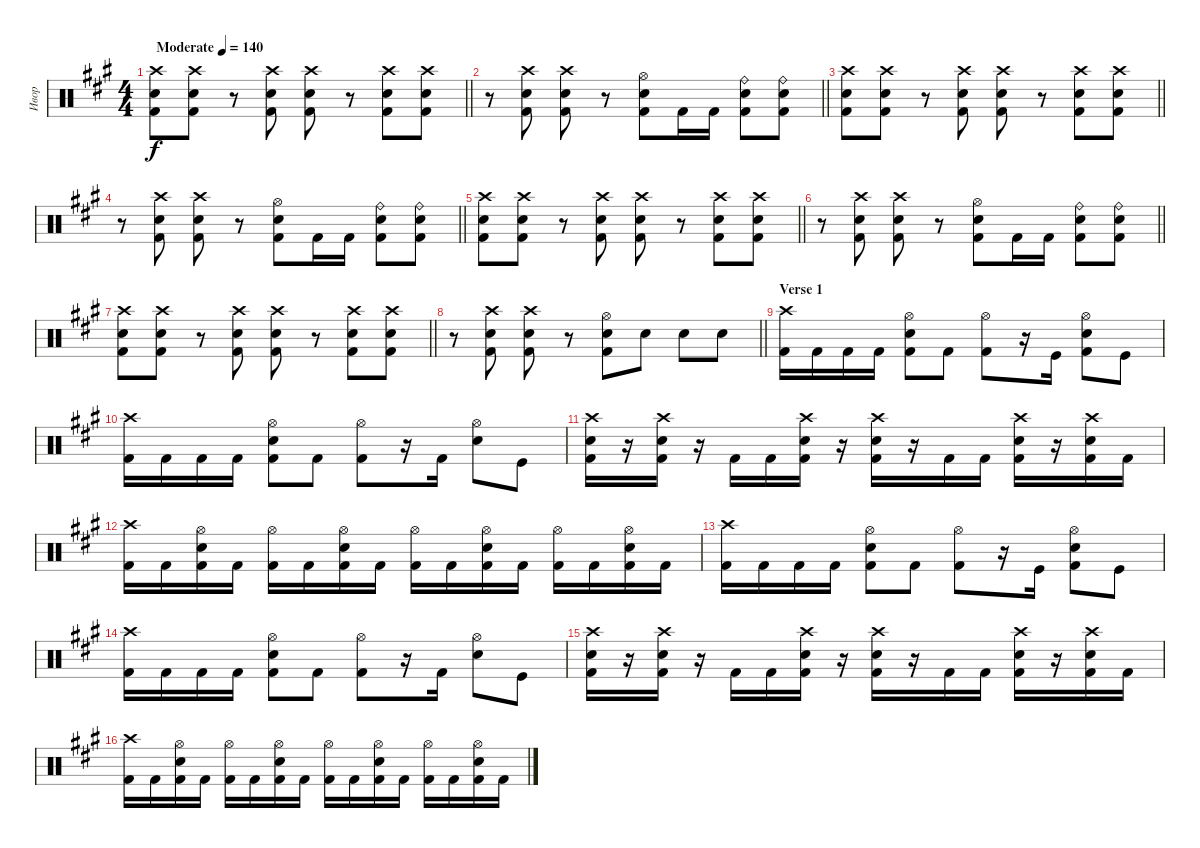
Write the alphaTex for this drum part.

\track ("Ивор" "Ивор") {instrument percussion}
\staff {score}
\articulation defaults
\ts (4 4)
\tempo (140 "Moderate")
\clef neutral
\barLineRight lightlight
\ks f#minor
("Crash high (hit)" "Electric Snare (hit)" "Kick (hit) 2").8{dy f} ("Crash high (hit)" "Electric Snare (hit)" "Kick (hit) 2").8 r.8 ("Crash high (hit)" "Electric Snare (hit)" "Kick (hit) 2").8 ("Crash high (hit)" "Electric Snare (hit)" "Kick (hit) 2").8 r.8 ("Crash high (hit)" "Electric Snare (hit)" "Kick (hit) 2").8 ("Crash high (hit)" "Electric Snare (hit)" "Kick (hit) 2").8 |
\barLineRight lightlight
r.8 ("Crash high (hit)" "Electric Snare (hit)" "Kick (hit) 2").8 ("Crash high (hit)" "Electric Snare (hit)" "Kick (hit) 2").8 r.8 ("Hi-Hat (open)" "Electric Snare (hit)" "Kick (hit) 2").8 "Kick (hit) 2".16 "Kick (hit) 2".16 ("Ride (bell)" "Electric Snare (hit)" "Kick (hit) 2").8 ("Ride (bell)" "Electric Snare (hit)" "Kick (hit) 2").8 |
\barLineRight lightlight
("Crash high (hit)" "Electric Snare (hit)" "Kick (hit) 2").8 ("Crash high (hit)" "Electric Snare (hit)" "Kick (hit) 2").8 r.8 ("Crash high (hit)" "Electric Snare (hit)" "Kick (hit) 2").8 ("Crash high (hit)" "Electric Snare (hit)" "Kick (hit) 2").8 r.8 ("Crash high (hit)" "Electric Snare (hit)" "Kick (hit) 2").8 ("Crash high (hit)" "Electric Snare (hit)" "Kick (hit) 2").8 |
\barLineRight lightlight
r.8 ("Crash high (hit)" "Electric Snare (hit)" "Kick (hit) 2").8 ("Crash high (hit)" "Electric Snare (hit)" "Kick (hit) 2").8 r.8 ("Hi-Hat (open)" "Electric Snare (hit)" "Kick (hit) 2").8 "Kick (hit) 2".16 "Kick (hit) 2".16 ("Ride (bell)" "Electric Snare (hit)" "Kick (hit) 2").8 ("Ride (bell)" "Electric Snare (hit)" "Kick (hit) 2").8 |
\barLineRight lightlight
("Crash high (hit)" "Electric Snare (hit)" "Kick (hit) 2").8 ("Crash high (hit)" "Electric Snare (hit)" "Kick (hit) 2").8 r.8 ("Crash high (hit)" "Electric Snare (hit)" "Kick (hit) 2").8 ("Crash high (hit)" "Electric Snare (hit)" "Kick (hit) 2").8 r.8 ("Crash high (hit)" "Electric Snare (hit)" "Kick (hit) 2").8 ("Crash high (hit)" "Electric Snare (hit)" "Kick (hit) 2").8 |
\barLineRight lightlight
r.8 ("Crash high (hit)" "Electric Snare (hit)" "Kick (hit) 2").8 ("Crash high (hit)" "Electric Snare (hit)" "Kick (hit) 2").8 r.8 ("Hi-Hat (open)" "Electric Snare (hit)" "Kick (hit) 2").8 "Kick (hit) 2".16 "Kick (hit) 2".16 ("Ride (bell)" "Electric Snare (hit)" "Kick (hit) 2").8 ("Ride (bell)" "Electric Snare (hit)" "Kick (hit) 2").8 |
\barLineRight lightlight
("Crash high (hit)" "Electric Snare (hit)" "Kick (hit) 2").8 ("Crash high (hit)" "Electric Snare (hit)" "Kick (hit) 2").8 r.8 ("Crash high (hit)" "Electric Snare (hit)" "Kick (hit) 2").8 ("Crash high (hit)" "Electric Snare (hit)" "Kick (hit) 2").8 r.8 ("Crash high (hit)" "Electric Snare (hit)" "Kick (hit) 2").8 ("Crash high (hit)" "Electric Snare (hit)" "Kick (hit) 2").8 |
\barLineRight lightlight
r.8 ("Crash high (hit)" "Electric Snare (hit)" "Kick (hit) 2").8 ("Crash high (hit)" "Electric Snare (hit)" "Kick (hit) 2").8 r.8 ("Hi-Hat (open)" "Electric Snare (hit)" "Kick (hit) 2").8 "Electric Snare (hit)".8 "Electric Snare (hit)".8 "Electric Snare (hit)".8 |
\section ("" "Verse 1")
("Crash high (hit)" "Kick (hit) 2").16 "Kick (hit) 2".16 "Kick (hit) 2".16 "Kick (hit) 2".16 ("Hi-Hat (open)" "Electric Snare (hit)" "Kick (hit) 2").8 "Kick (hit) 2".8 ("Hi-Hat (open)" "Kick (hit) 2").8 r.16 "Kick (hit)".16 ("Hi-Hat (open)" "Electric Snare (hit)" "Kick (hit) 2").8 "Kick (hit)".8 |
("Crash high (hit)" "Kick (hit) 2").16 "Kick (hit) 2".16 "Kick (hit) 2".16 "Kick (hit) 2".16 ("Hi-Hat (open)" "Electric Snare (hit)" "Kick (hit) 2").8 "Kick (hit) 2".8 ("Hi-Hat (open)" "Kick (hit) 2").8 r.16 "Kick (hit) 2".16 ("Hi-Hat (open)" "Electric Snare (hit)").8 "Kick (hit)".8 |
("Crash high (hit)" "Electric Snare (hit)" "Kick (hit) 2").16 r.16 ("Crash high (hit)" "Electric Snare (hit)" "Kick (hit) 2").16 r.16 "Kick (hit) 2".16 "Kick (hit) 2".16 ("Crash high (hit)" "Electric Snare (hit)" "Kick (hit) 2").16 r.16 ("Crash high (hit)" "Electric Snare (hit)" "Kick (hit) 2").16 r.16 "Kick (hit) 2".16 "Kick (hit) 2".16 ("Crash high (hit)" "Electric Snare (hit)" "Kick (hit) 2").16 r.16 ("Crash high (hit)" "Electric Snare (hit)" "Kick (hit) 2").16 "Kick (hit) 2".16 |
("Crash high (hit)" "Kick (hit) 2").16 "Kick (hit) 2".16 ("Hi-Hat (open)" "Electric Snare (hit)" "Kick (hit) 2").16 "Kick (hit) 2".16 ("Hi-Hat (open)" "Kick (hit) 2").16 "Kick (hit) 2".16 ("Hi-Hat (open)" "Electric Snare (hit)" "Kick (hit) 2").16 "Kick (hit) 2".16 ("Hi-Hat (open)" "Kick (hit) 2").16 "Kick (hit) 2".16 ("Hi-Hat (open)" "Electric Snare (hit)" "Kick (hit) 2").16 "Kick (hit) 2".16 ("Hi-Hat (open)" "Kick (hit) 2").16 "Kick (hit) 2".16 ("Hi-Hat (open)" "Electric Snare (hit)" "Kick (hit) 2").16 "Kick (hit) 2".16 |
("Crash high (hit)" "Kick (hit) 2").16 "Kick (hit) 2".16 "Kick (hit) 2".16 "Kick (hit) 2".16 ("Hi-Hat (open)" "Electric Snare (hit)" "Kick (hit) 2").8 "Kick (hit) 2".8 ("Hi-Hat (open)" "Kick (hit) 2").8 r.16 "Kick (hit)".16 ("Hi-Hat (open)" "Electric Snare (hit)" "Kick (hit) 2").8 "Kick (hit)".8 |
("Crash high (hit)" "Kick (hit) 2").16 "Kick (hit) 2".16 "Kick (hit) 2".16 "Kick (hit) 2".16 ("Hi-Hat (open)" "Electric Snare (hit)" "Kick (hit) 2").8 "Kick (hit) 2".8 ("Hi-Hat (open)" "Kick (hit) 2").8 r.16 "Kick (hit) 2".16 ("Hi-Hat (open)" "Electric Snare (hit)").8 "Kick (hit)".8 |
("Crash high (hit)" "Electric Snare (hit)" "Kick (hit) 2").16 r.16 ("Crash high (hit)" "Electric Snare (hit)" "Kick (hit) 2").16 r.16 "Kick (hit) 2".16 "Kick (hit) 2".16 ("Crash high (hit)" "Electric Snare (hit)" "Kick (hit) 2").16 r.16 ("Crash high (hit)" "Electric Snare (hit)" "Kick (hit) 2").16 r.16 "Kick (hit) 2".16 "Kick (hit) 2".16 ("Crash high (hit)" "Electric Snare (hit)" "Kick (hit) 2").16 r.16 ("Crash high (hit)" "Electric Snare (hit)" "Kick (hit) 2").16 "Kick (hit) 2".16 |
("Crash high (hit)" "Kick (hit) 2").16 "Kick (hit) 2".16 ("Hi-Hat (open)" "Electric Snare (hit)" "Kick (hit) 2").16 "Kick (hit) 2".16 ("Hi-Hat (open)" "Kick (hit) 2").16 "Kick (hit) 2".16 ("Hi-Hat (open)" "Electric Snare (hit)" "Kick (hit) 2").16 "Kick (hit) 2".16 ("Hi-Hat (open)" "Kick (hit) 2").16 "Kick (hit) 2".16 ("Hi-Hat (open)" "Electric Snare (hit)" "Kick (hit) 2").16 "Kick (hit) 2".16 ("Hi-Hat (open)" "Kick (hit) 2").16 "Kick (hit) 2".16 ("Hi-Hat (open)" "Electric Snare (hit)" "Kick (hit) 2").16 "Kick (hit) 2".16
